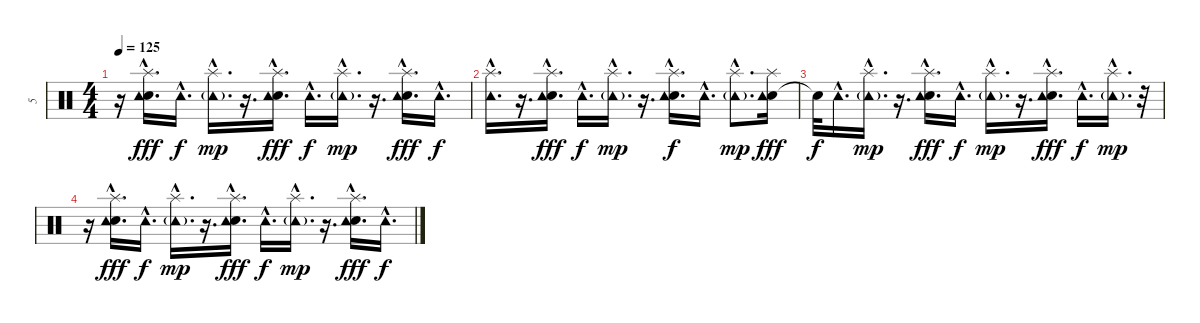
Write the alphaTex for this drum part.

\track ("5" "5") {instrument percussion}
\staff {score}
\articulation defaults
\ts (4 4)
\tempo 125
\clef neutral
\ks c
r.16{dy mp} ("Electric Snare (hit)"{hac} "Tambourine (hit)"{hac} "Splash (hit)"{hac}).16{d dy fff} "Tambourine (hit)"{hac}.16{d dy f} ("Tambourine (hit)"{g hac} "Splash (hit)"{hac}).16{d dy mp} r.16{d} ("Electric Snare (hit)"{hac} "Tambourine (hit)"{hac} "Splash (hit)"{hac}).16{d dy fff} "Tambourine (hit)"{hac}.16{d dy f} ("Tambourine (hit)"{g hac} "Splash (hit)"{hac}).16{d dy mp} r.16{d} ("Electric Snare (hit)"{hac} "Tambourine (hit)"{hac} "Splash (hit)"{hac}).16{d dy fff} "Tambourine (hit)"{hac}.16{d dy f} |
("Tambourine (hit)"{hac} "Splash (hit)"{hac}).16{d} r.16{d} ("Electric Snare (hit)"{hac} "Tambourine (hit)"{hac} "Splash (hit)"{hac}).16{d dy fff} "Tambourine (hit)"{hac}.16{d dy f} ("Tambourine (hit)"{g hac} "Splash (hit)"{hac}).16{d dy mp} r.16{d} ("Electric Snare (hit)"{hac} "Tambourine (hit)"{hac} "Splash (hit)"{hac}).16{d dy f} "Tambourine (hit)"{hac}.16{d} ("Tambourine (hit)"{g hac} "Splash (hit)"{hac}).8{d dy mp} ("Electric Snare (hit)" "Tambourine (hit)" "Splash (hit)").16{dy fff} |
"Snare (hit)"{t}.32{dy f} "Tambourine (hit)"{hac}.16{d} ("Tambourine (hit)"{g hac} "Splash (hit)"{hac}).16{d dy mp} r.16{d} ("Electric Snare (hit)"{hac} "Tambourine (hit)"{hac} "Splash (hit)"{hac}).16{d dy fff} "Tambourine (hit)"{hac}.16{d dy f} ("Tambourine (hit)"{g hac} "Splash (hit)"{hac}).16{d dy mp} r.16{d} ("Electric Snare (hit)"{hac} "Tambourine (hit)"{hac} "Splash (hit)"{hac}).16{d dy fff} "Tambourine (hit)"{hac}.16{d dy f} ("Tambourine (hit)"{g hac} "Splash (hit)"{hac}).16{d dy mp} r.32 |
r.16 ("Electric Snare (hit)"{hac} "Tambourine (hit)"{hac} "Splash (hit)"{hac}).16{d dy fff} "Tambourine (hit)"{hac}.16{d dy f} ("Tambourine (hit)"{g hac} "Splash (hit)"{hac}).16{d dy mp} r.16{d} ("Electric Snare (hit)"{hac} "Tambourine (hit)"{hac} "Splash (hit)"{hac}).16{d dy fff} "Tambourine (hit)"{hac}.16{d dy f} ("Tambourine (hit)"{g hac} "Splash (hit)"{hac}).16{d dy mp} r.16{d} ("Electric Snare (hit)"{hac} "Tambourine (hit)"{hac} "Splash (hit)"{hac}).16{d dy fff} "Tambourine (hit)"{hac}.16{d dy f}
